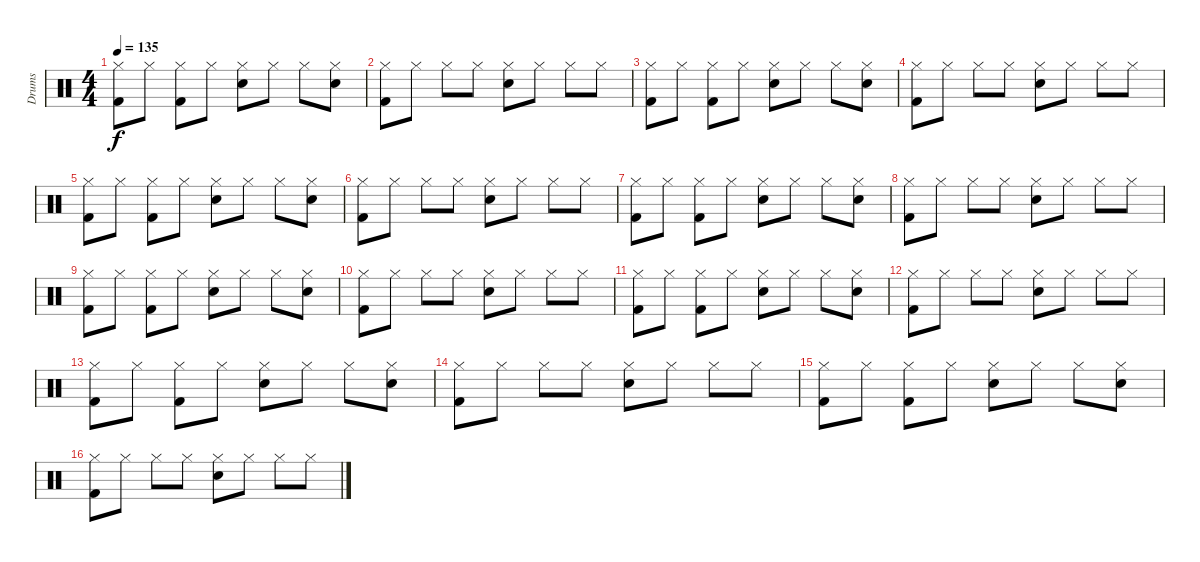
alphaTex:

\track ("Drums" "Drums") {instrument percussion}
\staff {score}
\articulation defaults
\ts (4 4)
\tempo 135
\clef neutral
\ks c
("Kick (hit) 2" "Hi-Hat (closed)").8{dy f} "Hi-Hat (closed)".8 ("Kick (hit) 2" "Hi-Hat (closed)").8 "Hi-Hat (closed)".8 ("Snare (hit) 2" "Hi-Hat (closed)").8 "Hi-Hat (closed)".8 "Hi-Hat (closed)".8 ("Snare (hit) 2" "Hi-Hat (closed)").8 |
("Kick (hit) 2" "Hi-Hat (closed)").8 "Hi-Hat (closed)".8 "Hi-Hat (closed)".8 "Hi-Hat (closed)".8 ("Snare (hit) 2" "Hi-Hat (closed)").8 "Hi-Hat (closed)".8 "Hi-Hat (closed)".8 "Hi-Hat (closed)".8 |
("Kick (hit) 2" "Hi-Hat (closed)").8 "Hi-Hat (closed)".8 ("Kick (hit) 2" "Hi-Hat (closed)").8 "Hi-Hat (closed)".8 ("Snare (hit) 2" "Hi-Hat (closed)").8 "Hi-Hat (closed)".8 "Hi-Hat (closed)".8 ("Snare (hit) 2" "Hi-Hat (closed)").8 |
("Kick (hit) 2" "Hi-Hat (closed)").8 "Hi-Hat (closed)".8 "Hi-Hat (closed)".8 "Hi-Hat (closed)".8 ("Snare (hit) 2" "Hi-Hat (closed)").8 "Hi-Hat (closed)".8 "Hi-Hat (closed)".8 "Hi-Hat (closed)".8 |
("Kick (hit) 2" "Hi-Hat (closed)").8 "Hi-Hat (closed)".8 ("Kick (hit) 2" "Hi-Hat (closed)").8 "Hi-Hat (closed)".8 ("Snare (hit) 2" "Hi-Hat (closed)").8 "Hi-Hat (closed)".8 "Hi-Hat (closed)".8 ("Snare (hit) 2" "Hi-Hat (closed)").8 |
("Kick (hit) 2" "Hi-Hat (closed)").8 "Hi-Hat (closed)".8 "Hi-Hat (closed)".8 "Hi-Hat (closed)".8 ("Snare (hit) 2" "Hi-Hat (closed)").8 "Hi-Hat (closed)".8 "Hi-Hat (closed)".8 "Hi-Hat (closed)".8 |
("Kick (hit) 2" "Hi-Hat (closed)").8 "Hi-Hat (closed)".8 ("Kick (hit) 2" "Hi-Hat (closed)").8 "Hi-Hat (closed)".8 ("Snare (hit) 2" "Hi-Hat (closed)").8 "Hi-Hat (closed)".8 "Hi-Hat (closed)".8 ("Snare (hit) 2" "Hi-Hat (closed)").8 |
("Kick (hit) 2" "Hi-Hat (closed)").8 "Hi-Hat (closed)".8 "Hi-Hat (closed)".8 "Hi-Hat (closed)".8 ("Snare (hit) 2" "Hi-Hat (closed)").8 "Hi-Hat (closed)".8 "Hi-Hat (closed)".8 "Hi-Hat (closed)".8 |
("Kick (hit) 2" "Hi-Hat (closed)").8 "Hi-Hat (closed)".8 ("Kick (hit) 2" "Hi-Hat (closed)").8 "Hi-Hat (closed)".8 ("Snare (hit) 2" "Hi-Hat (closed)").8 "Hi-Hat (closed)".8 "Hi-Hat (closed)".8 ("Snare (hit) 2" "Hi-Hat (closed)").8 |
("Kick (hit) 2" "Hi-Hat (closed)").8 "Hi-Hat (closed)".8 "Hi-Hat (closed)".8 "Hi-Hat (closed)".8 ("Snare (hit) 2" "Hi-Hat (closed)").8 "Hi-Hat (closed)".8 "Hi-Hat (closed)".8 "Hi-Hat (closed)".8 |
("Kick (hit) 2" "Hi-Hat (closed)").8 "Hi-Hat (closed)".8 ("Kick (hit) 2" "Hi-Hat (closed)").8 "Hi-Hat (closed)".8 ("Snare (hit) 2" "Hi-Hat (closed)").8 "Hi-Hat (closed)".8 "Hi-Hat (closed)".8 ("Snare (hit) 2" "Hi-Hat (closed)").8 |
("Kick (hit) 2" "Hi-Hat (closed)").8 "Hi-Hat (closed)".8 "Hi-Hat (closed)".8 "Hi-Hat (closed)".8 ("Snare (hit) 2" "Hi-Hat (closed)").8 "Hi-Hat (closed)".8 "Hi-Hat (closed)".8 "Hi-Hat (closed)".8 |
("Kick (hit) 2" "Hi-Hat (closed)").8 "Hi-Hat (closed)".8 ("Kick (hit) 2" "Hi-Hat (closed)").8 "Hi-Hat (closed)".8 ("Snare (hit) 2" "Hi-Hat (closed)").8 "Hi-Hat (closed)".8 "Hi-Hat (closed)".8 ("Snare (hit) 2" "Hi-Hat (closed)").8 |
("Kick (hit) 2" "Hi-Hat (closed)").8 "Hi-Hat (closed)".8 "Hi-Hat (closed)".8 "Hi-Hat (closed)".8 ("Snare (hit) 2" "Hi-Hat (closed)").8 "Hi-Hat (closed)".8 "Hi-Hat (closed)".8 "Hi-Hat (closed)".8 |
("Kick (hit) 2" "Hi-Hat (closed)").8 "Hi-Hat (closed)".8 ("Kick (hit) 2" "Hi-Hat (closed)").8 "Hi-Hat (closed)".8 ("Snare (hit) 2" "Hi-Hat (closed)").8 "Hi-Hat (closed)".8 "Hi-Hat (closed)".8 ("Snare (hit) 2" "Hi-Hat (closed)").8 |
("Kick (hit) 2" "Hi-Hat (closed)").8 "Hi-Hat (closed)".8 "Hi-Hat (closed)".8 "Hi-Hat (closed)".8 ("Snare (hit) 2" "Hi-Hat (closed)").8 "Hi-Hat (closed)".8 "Hi-Hat (closed)".8 "Hi-Hat (closed)".8
